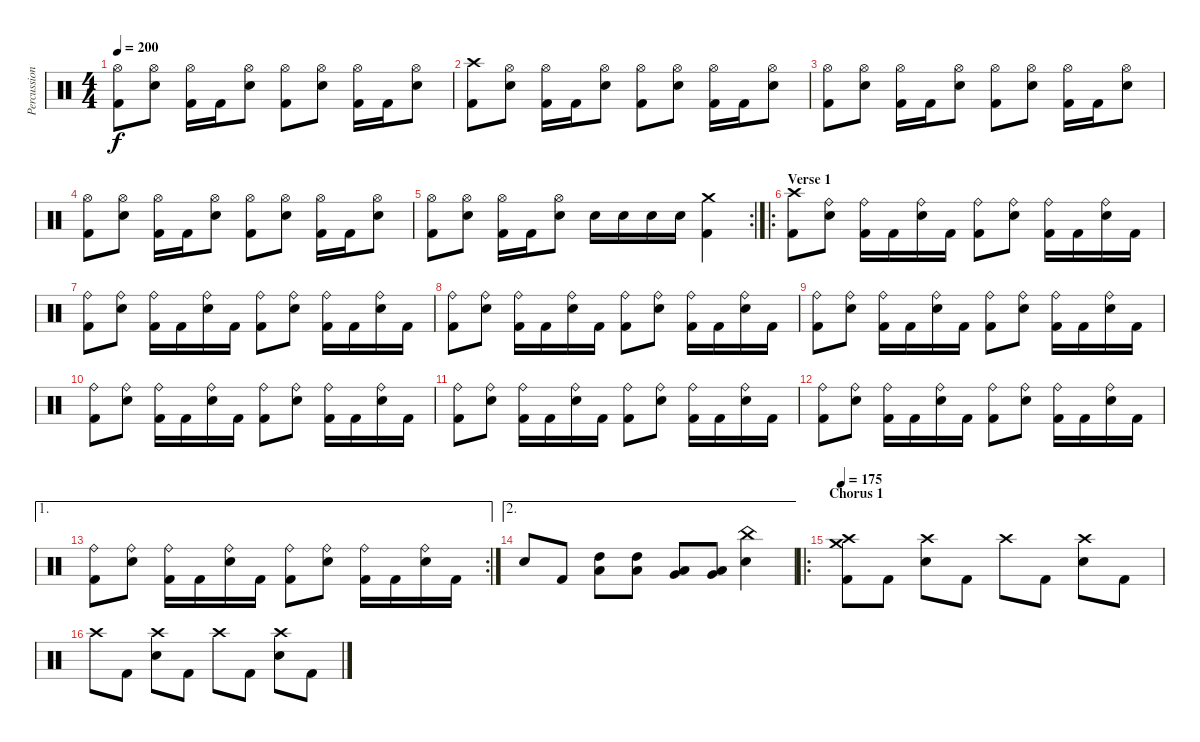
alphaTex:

\track ("Percussion" "Percussion") {instrument percussion}
\staff {score}
\articulation defaults
\ts (4 4)
\tempo 200
\clef neutral
\ks c
("Hi-Hat (open)" "Kick (hit) 2").8{dy f} ("Hi-Hat (open)" "Electric Snare (hit)").8 ("Hi-Hat (open)" "Kick (hit) 2").16 "Kick (hit) 2".16 ("Hi-Hat (open)" "Electric Snare (hit)").8 ("Hi-Hat (open)" "Kick (hit) 2").8 ("Hi-Hat (open)" "Electric Snare (hit)").8 ("Hi-Hat (open)" "Kick (hit) 2").16 "Kick (hit) 2".16 ("Hi-Hat (open)" "Electric Snare (hit)").8 |
("Crash high (hit)" "Kick (hit) 2").8 ("Hi-Hat (open)" "Electric Snare (hit)").8 ("Hi-Hat (open)" "Kick (hit) 2").16 "Kick (hit) 2".16 ("Hi-Hat (open)" "Electric Snare (hit)").8 ("Hi-Hat (open)" "Kick (hit) 2").8 ("Hi-Hat (open)" "Electric Snare (hit)").8 ("Hi-Hat (open)" "Kick (hit) 2").16 "Kick (hit) 2".16 ("Hi-Hat (open)" "Electric Snare (hit)").8 |
("Hi-Hat (open)" "Kick (hit) 2").8 ("Hi-Hat (open)" "Electric Snare (hit)").8 ("Hi-Hat (open)" "Kick (hit) 2").16 "Kick (hit) 2".16 ("Hi-Hat (open)" "Electric Snare (hit)").8 ("Hi-Hat (open)" "Kick (hit) 2").8 ("Hi-Hat (open)" "Electric Snare (hit)").8 ("Hi-Hat (open)" "Kick (hit) 2").16 "Kick (hit) 2".16 ("Hi-Hat (open)" "Electric Snare (hit)").8 |
("Hi-Hat (open)" "Kick (hit) 2").8 ("Hi-Hat (open)" "Electric Snare (hit)").8 ("Hi-Hat (open)" "Kick (hit) 2").16 "Kick (hit) 2".16 ("Hi-Hat (open)" "Electric Snare (hit)").8 ("Hi-Hat (open)" "Kick (hit) 2").8 ("Hi-Hat (open)" "Electric Snare (hit)").8 ("Hi-Hat (open)" "Kick (hit) 2").16 "Kick (hit) 2".16 ("Hi-Hat (open)" "Electric Snare (hit)").8 |
\rc 2
("Hi-Hat (open)" "Kick (hit) 2").8 ("Hi-Hat (open)" "Electric Snare (hit)").8 ("Hi-Hat (open)" "Kick (hit) 2").16 "Kick (hit) 2".16 ("Hi-Hat (open)" "Electric Snare (hit)").8 "Electric Snare (hit)".16 "Electric Snare (hit)".16 "Electric Snare (hit)".16 "Electric Snare (hit)".16 ("Crash medium (hit)" "Kick (hit) 2").4 |
\ro
\section ("" "Verse 1")
("Crash high (hit)" "Kick (hit) 2").8 ("Ride (bell)" "Electric Snare (hit)").8 ("Ride (bell)" "Kick (hit) 2").16 "Kick (hit) 2".16 ("Ride (bell)" "Electric Snare (hit)").16 "Kick (hit) 2".16 ("Ride (bell)" "Kick (hit) 2").8 ("Ride (bell)" "Electric Snare (hit)").8 ("Ride (bell)" "Kick (hit) 2").16 "Kick (hit) 2".16 ("Ride (bell)" "Electric Snare (hit)").16 "Kick (hit) 2".16 |
("Ride (bell)" "Kick (hit) 2").8 ("Ride (bell)" "Electric Snare (hit)").8 ("Ride (bell)" "Kick (hit) 2").16 "Kick (hit) 2".16 ("Ride (bell)" "Electric Snare (hit)").16 "Kick (hit) 2".16 ("Ride (bell)" "Kick (hit) 2").8 ("Ride (bell)" "Electric Snare (hit)").8 ("Ride (bell)" "Kick (hit) 2").16 "Kick (hit) 2".16 ("Ride (bell)" "Electric Snare (hit)").16 "Kick (hit) 2".16 |
("Ride (bell)" "Kick (hit) 2").8 ("Ride (bell)" "Electric Snare (hit)").8 ("Ride (bell)" "Kick (hit) 2").16 "Kick (hit) 2".16 ("Ride (bell)" "Electric Snare (hit)").16 "Kick (hit) 2".16 ("Ride (bell)" "Kick (hit) 2").8 ("Ride (bell)" "Electric Snare (hit)").8 ("Ride (bell)" "Kick (hit) 2").16 "Kick (hit) 2".16 ("Ride (bell)" "Electric Snare (hit)").16 "Kick (hit) 2".16 |
("Ride (bell)" "Kick (hit) 2").8 ("Ride (bell)" "Electric Snare (hit)").8 ("Ride (bell)" "Kick (hit) 2").16 "Kick (hit) 2".16 ("Ride (bell)" "Electric Snare (hit)").16 "Kick (hit) 2".16 ("Ride (bell)" "Kick (hit) 2").8 ("Ride (bell)" "Electric Snare (hit)").8 ("Ride (bell)" "Kick (hit) 2").16 "Kick (hit) 2".16 ("Ride (bell)" "Electric Snare (hit)").16 "Kick (hit) 2".16 |
("Ride (bell)" "Kick (hit) 2").8 ("Ride (bell)" "Electric Snare (hit)").8 ("Ride (bell)" "Kick (hit) 2").16 "Kick (hit) 2".16 ("Ride (bell)" "Electric Snare (hit)").16 "Kick (hit) 2".16 ("Ride (bell)" "Kick (hit) 2").8 ("Ride (bell)" "Electric Snare (hit)").8 ("Ride (bell)" "Kick (hit) 2").16 "Kick (hit) 2".16 ("Ride (bell)" "Electric Snare (hit)").16 "Kick (hit) 2".16 |
("Ride (bell)" "Kick (hit) 2").8 ("Ride (bell)" "Electric Snare (hit)").8 ("Ride (bell)" "Kick (hit) 2").16 "Kick (hit) 2".16 ("Ride (bell)" "Electric Snare (hit)").16 "Kick (hit) 2".16 ("Ride (bell)" "Kick (hit) 2").8 ("Ride (bell)" "Electric Snare (hit)").8 ("Ride (bell)" "Kick (hit) 2").16 "Kick (hit) 2".16 ("Ride (bell)" "Electric Snare (hit)").16 "Kick (hit) 2".16 |
("Ride (bell)" "Kick (hit) 2").8 ("Ride (bell)" "Electric Snare (hit)").8 ("Ride (bell)" "Kick (hit) 2").16 "Kick (hit) 2".16 ("Ride (bell)" "Electric Snare (hit)").16 "Kick (hit) 2".16 ("Ride (bell)" "Kick (hit) 2").8 ("Ride (bell)" "Electric Snare (hit)").8 ("Ride (bell)" "Kick (hit) 2").16 "Kick (hit) 2".16 ("Ride (bell)" "Electric Snare (hit)").16 "Kick (hit) 2".16 |
\ae 1
\rc 2
("Ride (bell)" "Kick (hit) 2").8 ("Ride (bell)" "Electric Snare (hit)").8 ("Ride (bell)" "Kick (hit) 2").16 "Kick (hit) 2".16 ("Ride (bell)" "Electric Snare (hit)").16 "Kick (hit) 2".16 ("Ride (bell)" "Kick (hit) 2").8 ("Ride (bell)" "Electric Snare (hit)").8 ("Ride (bell)" "Kick (hit) 2").16 "Kick (hit) 2".16 ("Ride (bell)" "Electric Snare (hit)").16 "Kick (hit) 2".16 |
\ae 2 "Electric Snare (hit)".8 "Kick (hit) 2".8
("Low Tom (hit)" "High Tom (hit)").8 ("Low Tom (hit)" "High Tom (hit)").8 ("Very Low Tom (hit)" "Low Tom (hit)").8 ("Very Low Tom (hit)" "Low Tom (hit)").8 ("China (hit)" "Electric Snare (hit)").4 |
\ro
\section ("" "Chorus 1")
\tempo 175
("Crash high (hit)" "Crash medium (hit)" "Kick (hit) 2").8 "Kick (hit) 2".8 ("Crash high (hit)" "Electric Snare (hit)").8 "Kick (hit) 2".8 "Crash high (hit)".8 "Kick (hit) 2".8 ("Crash high (hit)" "Electric Snare (hit)").8 "Kick (hit) 2".8 |
"Crash high (hit)".8 "Kick (hit) 2".8 ("Crash high (hit)" "Electric Snare (hit)").8 "Kick (hit) 2".8 "Crash high (hit)".8 "Kick (hit) 2".8 ("Crash high (hit)" "Electric Snare (hit)").8 "Kick (hit) 2".8
